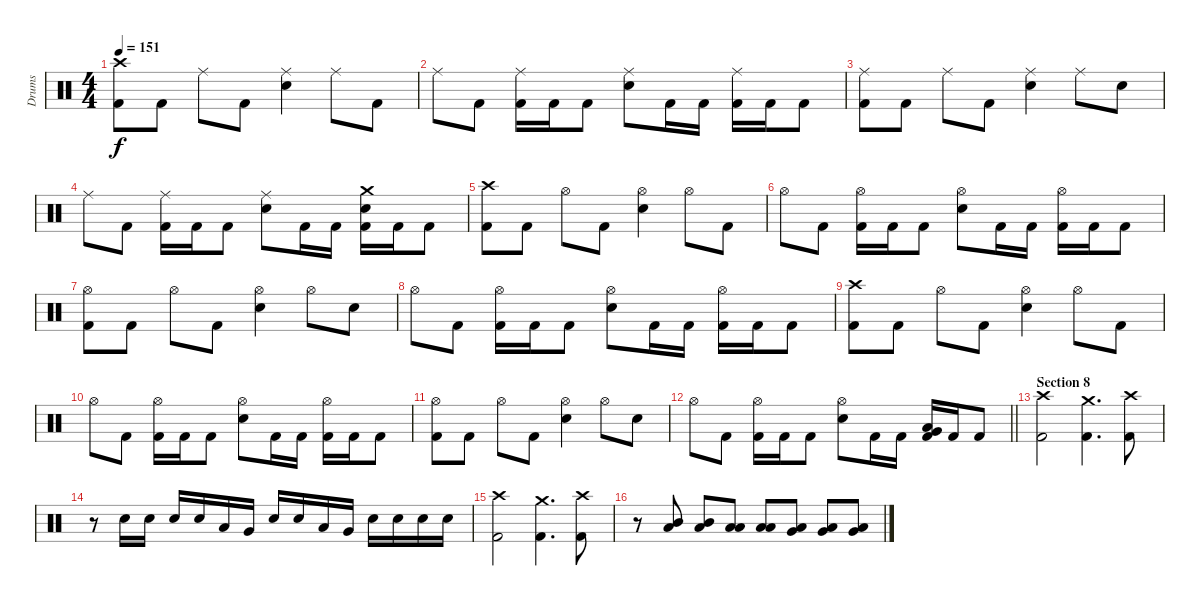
\track ("Drums" "Drums") {instrument percussion}
\staff {score}
\articulation defaults
\ts (4 4)
\tempo 151
\clef neutral
\ks c
("Crash high (hit)" "Kick (hit) 2").8{dy f} "Kick (hit) 2".8 "Ride (middle)".8 "Kick (hit) 2".8 ("Ride (middle)" "Snare (hit) 2").4 "Ride (middle)".8 "Kick (hit) 2".8 |
"Ride (middle)".8 "Kick (hit) 2".8 ("Ride (middle)" "Kick (hit) 2").16 "Kick (hit) 2".16 "Kick (hit) 2".8 ("Ride (middle)" "Snare (hit) 2").8 "Kick (hit) 2".16 "Kick (hit) 2".16 ("Ride (middle)" "Kick (hit) 2").16 "Kick (hit) 2".16 "Kick (hit) 2".8 |
("Ride (middle)" "Kick (hit) 2").8 "Kick (hit) 2".8 "Ride (middle)".8 "Kick (hit) 2".8 ("Ride (middle)" "Snare (hit) 2").4 "Ride (middle)".8 "Snare (hit) 2".8 |
"Ride (middle)".8 "Kick (hit) 2".8 ("Ride (middle)" "Kick (hit) 2").16 "Kick (hit) 2".16 "Kick (hit) 2".8 ("Ride (middle)" "Snare (hit) 2").8 "Kick (hit) 2".16 "Kick (hit) 2".16 ("Crash medium (hit)" "Snare (hit) 2" "Kick (hit) 2").16 "Kick (hit) 2".16 "Kick (hit) 2".8 |
("Crash high (hit)" "Kick (hit) 2").8 "Kick (hit) 2".8 "Hi-Hat (open)".8 "Kick (hit) 2".8 ("Hi-Hat (open)" "Snare (hit) 2").4 "Hi-Hat (open)".8 "Kick (hit) 2".8 |
"Hi-Hat (open)".8 "Kick (hit) 2".8 ("Hi-Hat (open)" "Kick (hit) 2").16 "Kick (hit) 2".16 "Kick (hit) 2".8 ("Hi-Hat (open)" "Snare (hit) 2").8 "Kick (hit) 2".16 "Kick (hit) 2".16 ("Hi-Hat (open)" "Kick (hit) 2").16 "Kick (hit) 2".16 "Kick (hit) 2".8 |
("Hi-Hat (open)" "Kick (hit) 2").8 "Kick (hit) 2".8 "Hi-Hat (open)".8 "Kick (hit) 2".8 ("Hi-Hat (open)" "Snare (hit) 2").4 "Hi-Hat (open)".8 "Snare (hit) 2".8 |
"Hi-Hat (open)".8 "Kick (hit) 2".8 ("Hi-Hat (open)" "Kick (hit) 2").16 "Kick (hit) 2".16 "Kick (hit) 2".8 ("Hi-Hat (open)" "Snare (hit) 2").8 "Kick (hit) 2".16 "Kick (hit) 2".16 ("Hi-Hat (open)" "Kick (hit) 2").16 "Kick (hit) 2".16 "Kick (hit) 2".8 |
("Crash high (hit)" "Kick (hit) 2").8 "Kick (hit) 2".8 "Hi-Hat (open)".8 "Kick (hit) 2".8 ("Hi-Hat (open)" "Snare (hit) 2").4 "Hi-Hat (open)".8 "Kick (hit) 2".8 |
"Hi-Hat (open)".8 "Kick (hit) 2".8 ("Hi-Hat (open)" "Kick (hit) 2").16 "Kick (hit) 2".16 "Kick (hit) 2".8 ("Hi-Hat (open)" "Snare (hit) 2").8 "Kick (hit) 2".16 "Kick (hit) 2".16 ("Hi-Hat (open)" "Kick (hit) 2").16 "Kick (hit) 2".16 "Kick (hit) 2".8 |
("Hi-Hat (open)" "Kick (hit) 2").8 "Kick (hit) 2".8 "Hi-Hat (open)".8 "Kick (hit) 2".8 ("Hi-Hat (open)" "Snare (hit) 2").4 "Hi-Hat (open)".8 "Snare (hit) 2".8 |
\barLineRight lightlight "Hi-Hat (open)".8 "Kick (hit) 2".8
("Hi-Hat (open)" "Kick (hit) 2").16 "Kick (hit) 2".16 "Kick (hit) 2".8 ("Hi-Hat (open)" "Snare (hit) 2").8 "Kick (hit) 2".16 "Kick (hit) 2".16 ("Low Tom (hit)" "Very Low Tom (hit)" "Kick (hit) 2").16 "Kick (hit) 2".16 "Kick (hit) 2".8 |
\section ("" "Section 8")
("Crash high (hit)" "Kick (hit) 2").2 ("Crash medium (hit)" "Kick (hit) 2").4{d} ("Crash high (hit)" "Kick (hit) 2").8 |
r.8 "Snare (hit) 2".16 "Snare (hit) 2".16 "Snare (hit) 2".16 "Snare (hit) 2".16 "Low Tom (hit)".16 "Very Low Tom (hit)".16 "Snare (hit) 2".16 "Snare (hit) 2".16 "Low Tom (hit)".16 "Very Low Tom (hit)".16 "Snare (hit) 2".16 "Snare (hit) 2".16 "Snare (hit) 2".16 "Snare (hit) 2".16 |
("Crash high (hit)" "Kick (hit) 2").2 ("Crash medium (hit)" "Kick (hit) 2").4{d} ("Crash high (hit)" "Kick (hit) 2").8 |
r.8 ("Mid Tom (hit)" "Low Floor Tom (hit)").8 ("Mid Tom (hit)" "Low Floor Tom (hit)").8 ("Low Tom (hit)" "Low Floor Tom (hit)").8 ("Low Tom (hit)" "Low Floor Tom (hit)").8 ("Very Low Tom (hit)" "Low Floor Tom (hit)").8 ("Very Low Tom (hit)" "Low Floor Tom (hit)").8 ("Very Low Tom (hit)" "Low Floor Tom (hit)").8
